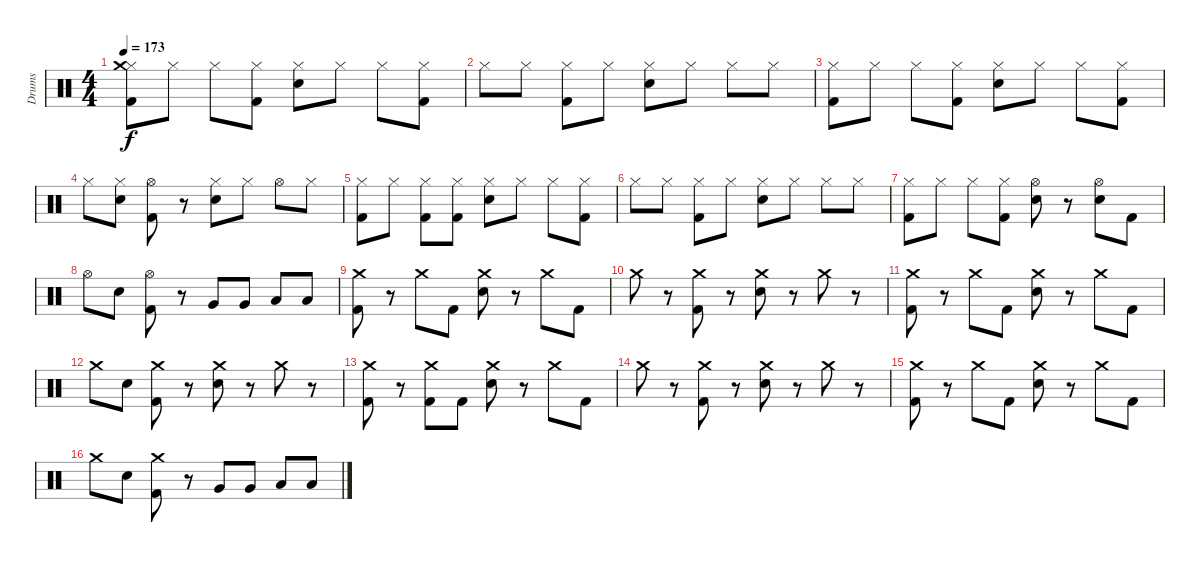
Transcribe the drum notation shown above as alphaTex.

\track ("Drums" "Drums") {instrument percussion}
\staff {score}
\articulation defaults
\ts (4 4)
\tempo 173
\clef neutral
\ks c
("Hi-Hat (closed)" "Kick (hit) 2" "Crash medium (hit)").8{dy f} "Hi-Hat (closed)".8 "Hi-Hat (closed)".8 ("Hi-Hat (closed)" "Kick (hit) 2").8 ("Hi-Hat (closed)" "Electric Snare (hit)").8 "Hi-Hat (closed)".8 "Hi-Hat (closed)".8 ("Hi-Hat (closed)" "Kick (hit) 2").8 |
"Hi-Hat (closed)".8 "Hi-Hat (closed)".8 ("Hi-Hat (closed)" "Kick (hit) 2").8 "Hi-Hat (closed)".8 ("Hi-Hat (closed)" "Electric Snare (hit)").8 "Hi-Hat (closed)".8 "Hi-Hat (closed)".8 "Hi-Hat (closed)".8 |
("Hi-Hat (closed)" "Kick (hit) 2").8 "Hi-Hat (closed)".8 "Hi-Hat (closed)".8 ("Hi-Hat (closed)" "Kick (hit) 2").8 ("Hi-Hat (closed)" "Electric Snare (hit)").8 "Hi-Hat (closed)".8 "Hi-Hat (closed)".8 ("Hi-Hat (closed)" "Kick (hit) 2").8 |
"Hi-Hat (closed)".8 ("Hi-Hat (closed)" "Electric Snare (hit)").8 ("Hi-Hat (open)" "Kick (hit) 2").8 r.8 ("Hi-Hat (closed)" "Electric Snare (hit)").8 "Hi-Hat (closed)".8 "Hi-Hat (open)".8 "Hi-Hat (closed)".8 |
("Hi-Hat (closed)" "Kick (hit) 2").8 "Hi-Hat (closed)".8 ("Hi-Hat (closed)" "Kick (hit) 2").8 ("Hi-Hat (closed)" "Kick (hit) 2").8 ("Hi-Hat (closed)" "Electric Snare (hit)").8 "Hi-Hat (closed)".8 "Hi-Hat (closed)".8 ("Hi-Hat (closed)" "Kick (hit) 2").8 |
"Hi-Hat (closed)".8 "Hi-Hat (closed)".8 ("Hi-Hat (closed)" "Kick (hit) 2").8 "Hi-Hat (closed)".8 ("Hi-Hat (closed)" "Electric Snare (hit)").8 "Hi-Hat (closed)".8 "Hi-Hat (closed)".8 "Hi-Hat (closed)".8 |
("Hi-Hat (closed)" "Kick (hit) 2").8 "Hi-Hat (closed)".8 "Hi-Hat (closed)".8 ("Hi-Hat (closed)" "Kick (hit) 2").8 ("Hi-Hat (open)" "Electric Snare (hit)").8 r.8 ("Hi-Hat (open)" "Electric Snare (hit)").8 "Kick (hit) 2".8 |
"Hi-Hat (open)".8 "Electric Snare (hit)".8 ("Hi-Hat (open)" "Kick (hit) 2").8 r.8 "Very Low Tom (hit)".8 "Very Low Tom (hit)".8 "Low Floor Tom (hit)".8 "Low Floor Tom (hit)".8 |
("Kick (hit) 2" "Crash medium (hit)").8 r.8 "Crash medium (hit)".8 "Kick (hit) 2".8 ("Electric Snare (hit)" "Crash medium (hit)").8 r.8 "Crash medium (hit)".8 "Kick (hit) 2".8 |
"Crash medium (hit)".8 r.8 ("Kick (hit) 2" "Crash medium (hit)").8 r.8 ("Electric Snare (hit)" "Crash medium (hit)").8 r.8 "Crash medium (hit)".8 r.8 |
("Kick (hit) 2" "Crash medium (hit)").8 r.8 "Crash medium (hit)".8 "Kick (hit) 2".8 ("Electric Snare (hit)" "Crash medium (hit)").8 r.8 "Crash medium (hit)".8 "Kick (hit) 2".8 |
"Crash medium (hit)".8 "Electric Snare (hit)".8 ("Kick (hit) 2" "Crash medium (hit)").8 r.8 ("Electric Snare (hit)" "Crash medium (hit)").8 r.8 "Crash medium (hit)".8 r.8 |
("Kick (hit) 2" "Crash medium (hit)").8 r.8 ("Kick (hit) 2" "Crash medium (hit)").8 "Kick (hit) 2".8 ("Electric Snare (hit)" "Crash medium (hit)").8 r.8 "Crash medium (hit)".8 "Kick (hit) 2".8 |
"Crash medium (hit)".8 r.8 ("Kick (hit) 2" "Crash medium (hit)").8 r.8 ("Electric Snare (hit)" "Crash medium (hit)").8 r.8 "Crash medium (hit)".8 r.8 |
("Kick (hit) 2" "Crash medium (hit)").8 r.8 "Crash medium (hit)".8 "Kick (hit) 2".8 ("Electric Snare (hit)" "Crash medium (hit)").8 r.8 "Crash medium (hit)".8 "Kick (hit) 2".8 |
"Crash medium (hit)".8 "Electric Snare (hit)".8 ("Kick (hit) 2" "Crash medium (hit)").8 r.8 "Very Low Tom (hit)".8 "Very Low Tom (hit)".8 "Low Floor Tom (hit)".8 "Low Floor Tom (hit)".8
